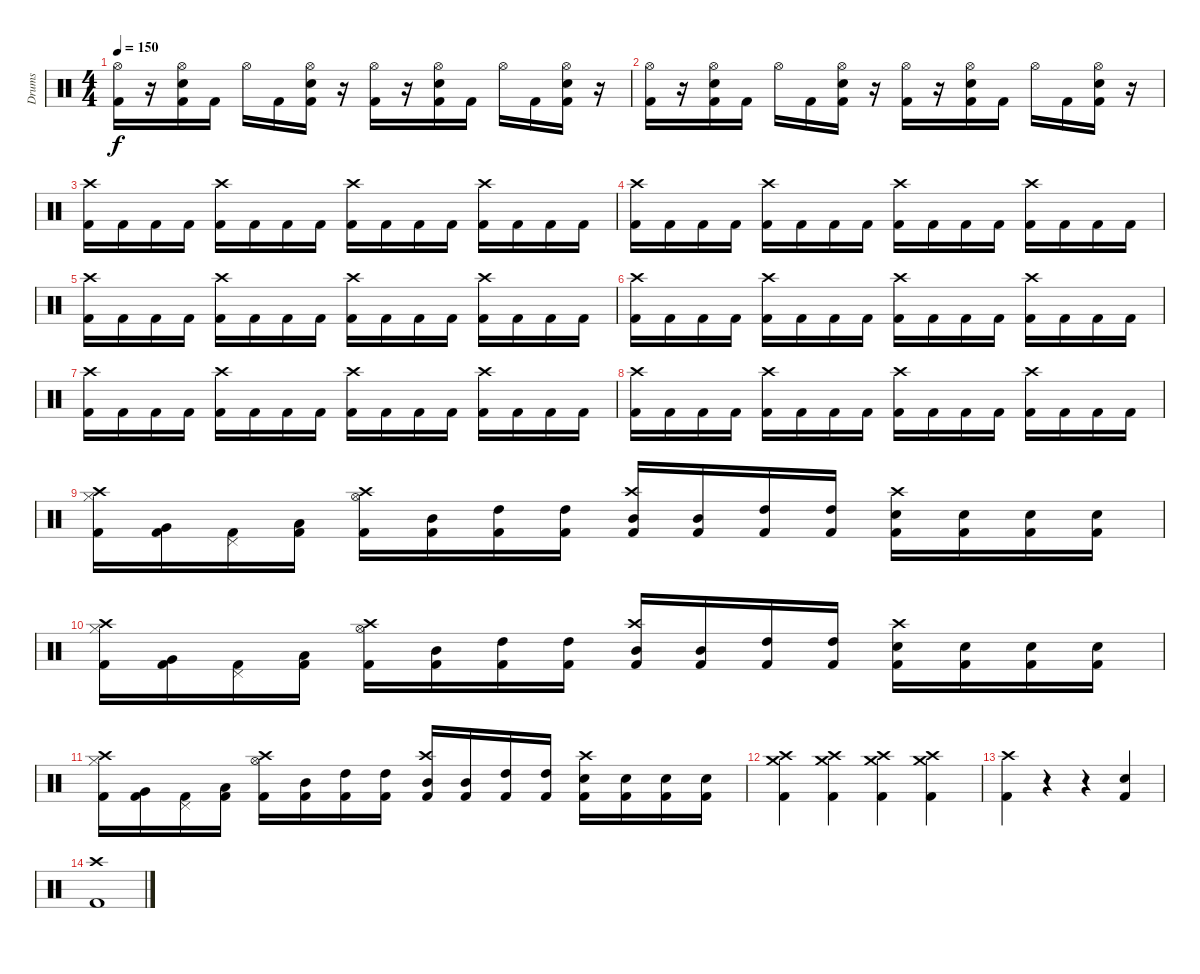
\track ("Drums" "Drums") {instrument percussion}
\staff {score}
\articulation defaults
\ts (4 4)
\tempo 150
\clef neutral
\ks c
("Hi-Hat (open)" "Kick (hit) 2").16{dy f} r.16 ("Hi-Hat (open)" "Electric Snare (hit)" "Kick (hit) 2").16 "Kick (hit) 2".16 "Hi-Hat (open)".16 "Kick (hit) 2".16 ("Hi-Hat (open)" "Electric Snare (hit)" "Kick (hit) 2").16 r.16 ("Hi-Hat (open)" "Kick (hit) 2").16 r.16 ("Hi-Hat (open)" "Electric Snare (hit)" "Kick (hit) 2").16 "Kick (hit) 2".16 "Hi-Hat (open)".16 "Kick (hit) 2".16 ("Hi-Hat (open)" "Electric Snare (hit)" "Kick (hit) 2").16 r.16 |
("Hi-Hat (open)" "Kick (hit) 2").16 r.16 ("Hi-Hat (open)" "Electric Snare (hit)" "Kick (hit) 2").16 "Kick (hit) 2".16 "Hi-Hat (open)".16 "Kick (hit) 2".16 ("Hi-Hat (open)" "Electric Snare (hit)" "Kick (hit) 2").16 r.16 ("Hi-Hat (open)" "Kick (hit) 2").16 r.16 ("Hi-Hat (open)" "Electric Snare (hit)" "Kick (hit) 2").16 "Kick (hit) 2".16 "Hi-Hat (open)".16 "Kick (hit) 2".16 ("Hi-Hat (open)" "Electric Snare (hit)" "Kick (hit) 2").16 r.16 |
("Kick (hit) 2" "Crash high (hit)").16 "Kick (hit) 2".16 "Kick (hit) 2".16 "Kick (hit) 2".16 ("Kick (hit) 2" "Crash high (hit)").16 "Kick (hit) 2".16 "Kick (hit) 2".16 "Kick (hit) 2".16 ("Kick (hit) 2" "Crash high (hit)").16 "Kick (hit) 2".16 "Kick (hit) 2".16 "Kick (hit) 2".16 ("Kick (hit) 2" "Crash high (hit)").16 "Kick (hit) 2".16 "Kick (hit) 2".16 "Kick (hit) 2".16 |
("Kick (hit) 2" "Crash high (hit)").16 "Kick (hit) 2".16 "Kick (hit) 2".16 "Kick (hit) 2".16 ("Kick (hit) 2" "Crash high (hit)").16 "Kick (hit) 2".16 "Kick (hit) 2".16 "Kick (hit) 2".16 ("Kick (hit) 2" "Crash high (hit)").16 "Kick (hit) 2".16 "Kick (hit) 2".16 "Kick (hit) 2".16 ("Kick (hit) 2" "Crash high (hit)").16 "Kick (hit) 2".16 "Kick (hit) 2".16 "Kick (hit) 2".16 |
("Kick (hit) 2" "Crash high (hit)").16 "Kick (hit) 2".16 "Kick (hit) 2".16 "Kick (hit) 2".16 ("Kick (hit) 2" "Crash high (hit)").16 "Kick (hit) 2".16 "Kick (hit) 2".16 "Kick (hit) 2".16 ("Kick (hit) 2" "Crash high (hit)").16 "Kick (hit) 2".16 "Kick (hit) 2".16 "Kick (hit) 2".16 ("Kick (hit) 2" "Crash high (hit)").16 "Kick (hit) 2".16 "Kick (hit) 2".16 "Kick (hit) 2".16 |
("Kick (hit) 2" "Crash high (hit)").16 "Kick (hit) 2".16 "Kick (hit) 2".16 "Kick (hit) 2".16 ("Kick (hit) 2" "Crash high (hit)").16 "Kick (hit) 2".16 "Kick (hit) 2".16 "Kick (hit) 2".16 ("Kick (hit) 2" "Crash high (hit)").16 "Kick (hit) 2".16 "Kick (hit) 2".16 "Kick (hit) 2".16 ("Kick (hit) 2" "Crash high (hit)").16 "Kick (hit) 2".16 "Kick (hit) 2".16 "Kick (hit) 2".16 |
("Kick (hit) 2" "Crash high (hit)").16 "Kick (hit) 2".16 "Kick (hit) 2".16 "Kick (hit) 2".16 ("Kick (hit) 2" "Crash high (hit)").16 "Kick (hit) 2".16 "Kick (hit) 2".16 "Kick (hit) 2".16 ("Kick (hit) 2" "Crash high (hit)").16 "Kick (hit) 2".16 "Kick (hit) 2".16 "Kick (hit) 2".16 ("Kick (hit) 2" "Crash high (hit)").16 "Kick (hit) 2".16 "Kick (hit) 2".16 "Kick (hit) 2".16 |
("Kick (hit) 2" "Crash high (hit)").16 "Kick (hit) 2".16 "Kick (hit) 2".16 "Kick (hit) 2".16 ("Kick (hit) 2" "Crash high (hit)").16 "Kick (hit) 2".16 "Kick (hit) 2".16 "Kick (hit) 2".16 ("Kick (hit) 2" "Crash high (hit)").16 "Kick (hit) 2".16 "Kick (hit) 2".16 "Kick (hit) 2".16 ("Kick (hit) 2" "Crash high (hit)").16 "Kick (hit) 2".16 "Kick (hit) 2".16 "Kick (hit) 2".16 |
("Kick (hit) 2" "Hi-Hat (closed)" "Crash high (hit)").16 ("Kick (hit) 2" "Very Low Tom (hit)").16 ("Kick (hit) 2" "Pedal Hi-Hat (hit)").16 ("Kick (hit) 2" "Low Tom (hit)").16 ("Kick (hit) 2" "Hi-Hat (open)" "Crash high (hit)").16 ("Kick (hit) 2" "Mid Tom (hit)").16 ("Kick (hit) 2" "High Tom (hit)").16 ("Kick (hit) 2" "High Tom (hit)").16 ("Kick (hit) 2" "Mid Tom (hit)" "Crash high (hit)").16 ("Kick (hit) 2" "Mid Tom (hit)").16 ("Kick (hit) 2" "High Tom (hit)").16 ("Kick (hit) 2" "High Tom (hit)").16 ("Kick (hit) 2" "Electric Snare (hit)" "Crash high (hit)").16 ("Kick (hit) 2" "Electric Snare (hit)").16 ("Kick (hit) 2" "Electric Snare (hit)").16 ("Kick (hit) 2" "Electric Snare (hit)").16 |
("Kick (hit) 2" "Hi-Hat (closed)" "Crash high (hit)").16 ("Kick (hit) 2" "Very Low Tom (hit)").16 ("Kick (hit) 2" "Pedal Hi-Hat (hit)").16 ("Kick (hit) 2" "Low Tom (hit)").16 ("Kick (hit) 2" "Hi-Hat (open)" "Crash high (hit)").16 ("Kick (hit) 2" "Mid Tom (hit)").16 ("Kick (hit) 2" "High Tom (hit)").16 ("Kick (hit) 2" "High Tom (hit)").16 ("Kick (hit) 2" "Mid Tom (hit)" "Crash high (hit)").16 ("Kick (hit) 2" "Mid Tom (hit)").16 ("Kick (hit) 2" "High Tom (hit)").16 ("Kick (hit) 2" "High Tom (hit)").16 ("Kick (hit) 2" "Electric Snare (hit)" "Crash high (hit)").16 ("Kick (hit) 2" "Electric Snare (hit)").16 ("Kick (hit) 2" "Electric Snare (hit)").16 ("Kick (hit) 2" "Electric Snare (hit)").16 |
("Kick (hit) 2" "Hi-Hat (closed)" "Crash high (hit)").16 ("Kick (hit) 2" "Very Low Tom (hit)").16 ("Kick (hit) 2" "Pedal Hi-Hat (hit)").16 ("Kick (hit) 2" "Low Tom (hit)").16 ("Kick (hit) 2" "Hi-Hat (open)" "Crash high (hit)").16 ("Kick (hit) 2" "Mid Tom (hit)").16 ("Kick (hit) 2" "High Tom (hit)").16 ("Kick (hit) 2" "High Tom (hit)").16 ("Kick (hit) 2" "Mid Tom (hit)" "Crash high (hit)").16 ("Kick (hit) 2" "Mid Tom (hit)").16 ("Kick (hit) 2" "High Tom (hit)").16 ("Kick (hit) 2" "High Tom (hit)").16 ("Kick (hit) 2" "Electric Snare (hit)" "Crash high (hit)").16 ("Kick (hit) 2" "Electric Snare (hit)").16 ("Kick (hit) 2" "Electric Snare (hit)").16 ("Kick (hit) 2" "Electric Snare (hit)").16 |
("Crash high (hit)" "Kick (hit) 2" "Crash medium (hit)").4 ("Crash high (hit)" "Kick (hit) 2" "Crash medium (hit)").4 ("Crash high (hit)" "Kick (hit) 2" "Crash medium (hit)").4 ("Crash high (hit)" "Kick (hit) 2" "Crash medium (hit)").4 |
("Kick (hit) 2" "Crash high (hit)").4 r.4 r.4 ("Kick (hit) 2" "Electric Snare (hit)").4 |
("Crash high (hit)" "Kick (hit) 2").1
